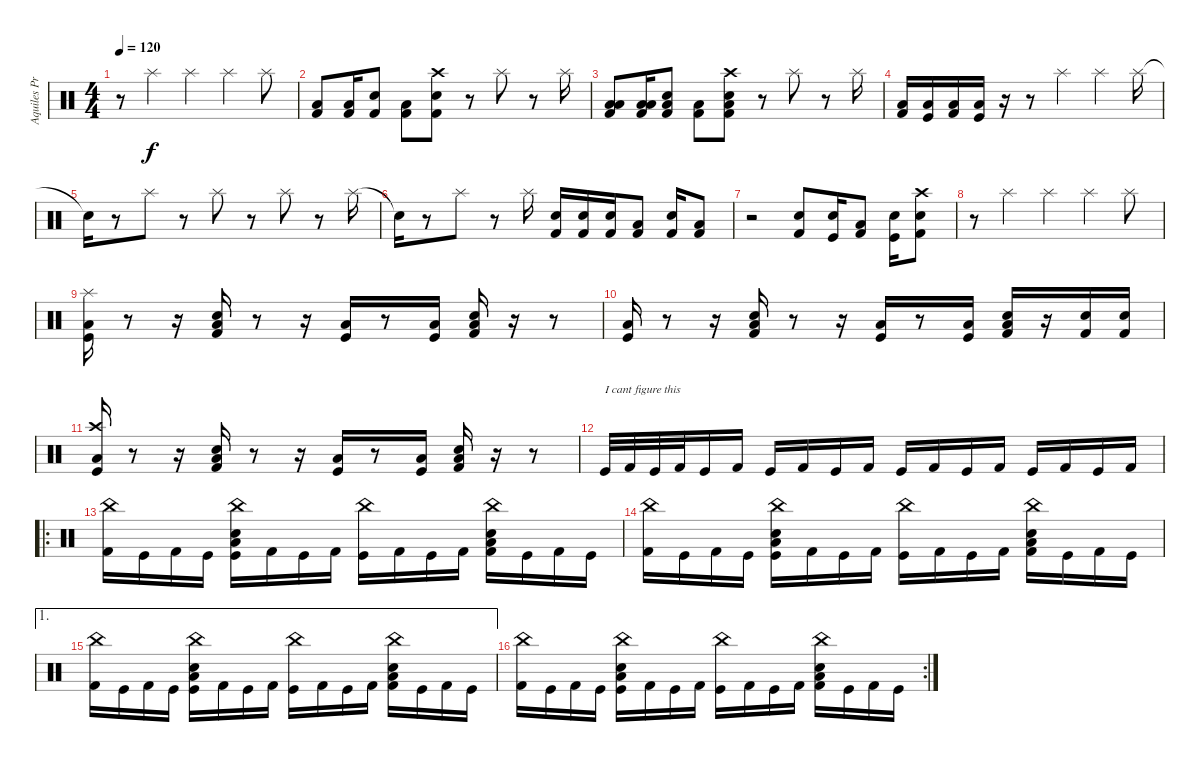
\track ("Aquiles Priester" "Aquiles Pr") {instrument percussion}
\staff {score}
\articulation defaults
\ts (4 4)
\tempo 120
\clef neutral
\ks c
r.8{dy f} "Splash (hit)".4 "Splash (hit)".4 "Splash (hit)".4 "Splash (hit)".8 |
("Kick (hit) 2" "Low Floor Tom (hit)").8 ("Kick (hit) 2" "Low Floor Tom (hit)").16 ("Kick (hit) 2" "Electric Snare (hit)").8 ("Kick (hit) 2" "Low Floor Tom (hit)").8 ("Kick (hit) 2" "Electric Snare (hit)" "Crash high (hit)").8 r.8 "Splash (hit)".8 r.8 "Splash (hit)".16 |
("Kick (hit) 2" "Low Tom (hit)" "Low Floor Tom (hit)").8 ("Kick (hit) 2" "Low Tom (hit)" "Low Floor Tom (hit)").16 ("Kick (hit) 2" "Low Floor Tom (hit)" "Electric Snare (hit)").8 ("Kick (hit) 2" "Low Floor Tom (hit)").8 ("Kick (hit) 2" "Low Floor Tom (hit)" "Electric Snare (hit)" "Crash high (hit)").8 r.8 "Splash (hit)".8 r.8 "Splash (hit)".16 |
("Kick (hit) 2" "Low Floor Tom (hit)").16 ("Kick (hit)" "Low Floor Tom (hit)").16 ("Kick (hit) 2" "Low Floor Tom (hit)").16 ("Kick (hit)" "Low Floor Tom (hit)").16 r.16 r.8 "Splash (hit)".4 "Splash (hit)".4 "Splash (hit)".16 |
"Snare (hit)"{t}.16 r.8 "Splash (hit)".8 r.8 "Splash (hit)".8 r.8 "Splash (hit)".8 r.8 "Splash (hit)".16 |
"Snare (hit)"{t}.16 r.8 "Splash (hit)".8 r.8 "Splash (hit)".16 ("Kick (hit) 2" "Electric Snare (hit)").16 ("Kick (hit) 2" "Electric Snare (hit)").16 ("Kick (hit) 2" "Electric Snare (hit)").16 ("Kick (hit) 2" "Low Floor Tom (hit)").8 ("Kick (hit) 2" "Electric Snare (hit)").16 ("Kick (hit) 2" "Low Floor Tom (hit)").8 |
r.2 ("Kick (hit) 2" "Electric Snare (hit)").8 ("Kick (hit)" "Electric Snare (hit)").16 ("Kick (hit) 2" "Low Floor Tom (hit)").8 ("Kick (hit)" "Electric Snare (hit)").16 ("Kick (hit) 2" "Electric Snare (hit)" "Crash high (hit)").8 |
r.8 "Splash (hit)".4 "Splash (hit)".4 "Splash (hit)".4 "Splash (hit)".8 |
("Kick (hit)" "Low Floor Tom (hit)" "Splash (hit)").16 r.8 r.16 ("Kick (hit) 2" "Low Floor Tom (hit)" "Electric Snare (hit)").16 r.8 r.16 ("Kick (hit)" "Low Floor Tom (hit)").16 r.8 ("Kick (hit)" "Low Floor Tom (hit)").16 ("Kick (hit) 2" "Low Floor Tom (hit)" "Electric Snare (hit)").16 r.16 r.8 |
("Kick (hit)" "Low Floor Tom (hit)").16 r.8 r.16 ("Kick (hit) 2" "Low Floor Tom (hit)" "Electric Snare (hit)").16 r.8 r.16 ("Kick (hit)" "Low Floor Tom (hit)").16 r.8 ("Kick (hit)" "Low Floor Tom (hit)").16 ("Kick (hit) 2" "Low Floor Tom (hit)" "Electric Snare (hit)").16 r.16 ("Kick (hit) 2" "Electric Snare (hit)").16 ("Kick (hit) 2" "Electric Snare (hit)").16 |
("Kick (hit)" "Low Floor Tom (hit)" "Crash high (hit)").16 r.8 r.16 ("Kick (hit) 2" "Low Floor Tom (hit)" "Electric Snare (hit)").16 r.8 r.16 ("Kick (hit)" "Low Floor Tom (hit)").16 r.8 ("Kick (hit)" "Low Floor Tom (hit)").16 ("Kick (hit) 2" "Low Floor Tom (hit)" "Electric Snare (hit)").16 r.16 r.8 |
"Kick (hit)".32{txt "I cant figure this"} "Kick (hit) 2".32 "Kick (hit)".32 "Kick (hit) 2".32 "Kick (hit)".16 "Kick (hit) 2".16 "Kick (hit)".16 "Kick (hit) 2".16 "Kick (hit)".16 "Kick (hit) 2".16 "Kick (hit)".16 "Kick (hit) 2".16 "Kick (hit)".16 "Kick (hit) 2".16 "Kick (hit)".16 "Kick (hit) 2".16 "Kick (hit)".16 "Kick (hit) 2".16 |
\ro
("Kick (hit) 2" "China (hit)").16 "Kick (hit)".16 "Kick (hit) 2".16 "Kick (hit)".16 ("Kick (hit)" "Low Floor Tom (hit)" "Electric Snare (hit)" "China (hit)").16 "Kick (hit) 2".16 "Kick (hit)".16 "Kick (hit) 2".16 ("Kick (hit)" "China (hit)").16 "Kick (hit) 2".16 "Kick (hit)".16 "Kick (hit) 2".16 ("Kick (hit) 2" "Low Floor Tom (hit)" "Electric Snare (hit)" "China (hit)").16 "Kick (hit)".16 "Kick (hit) 2".16 "Kick (hit)".16 |
("Kick (hit) 2" "China (hit)").16 "Kick (hit)".16 "Kick (hit) 2".16 "Kick (hit)".16 ("Kick (hit)" "Low Floor Tom (hit)" "Electric Snare (hit)" "China (hit)").16 "Kick (hit) 2".16 "Kick (hit)".16 "Kick (hit) 2".16 ("Kick (hit)" "China (hit)").16 "Kick (hit) 2".16 "Kick (hit)".16 "Kick (hit) 2".16 ("Kick (hit) 2" "Low Floor Tom (hit)" "Electric Snare (hit)" "China (hit)").16 "Kick (hit)".16 "Kick (hit) 2".16 "Kick (hit)".16 |
\ae 1
("Kick (hit) 2" "China (hit)").16 "Kick (hit)".16 "Kick (hit) 2".16 "Kick (hit)".16 ("Kick (hit)" "Low Floor Tom (hit)" "Electric Snare (hit)" "China (hit)").16 "Kick (hit) 2".16 "Kick (hit)".16 "Kick (hit) 2".16 ("Kick (hit)" "China (hit)").16 "Kick (hit) 2".16 "Kick (hit)".16 "Kick (hit) 2".16 ("Kick (hit) 2" "Low Floor Tom (hit)" "Electric Snare (hit)" "China (hit)").16 "Kick (hit)".16 "Kick (hit) 2".16 "Kick (hit)".16 |
\rc 2
("Kick (hit) 2" "China (hit)").16 "Kick (hit)".16 "Kick (hit) 2".16 "Kick (hit)".16 ("Kick (hit)" "Low Floor Tom (hit)" "Electric Snare (hit)" "China (hit)").16 "Kick (hit) 2".16 "Kick (hit)".16 "Kick (hit) 2".16 ("Kick (hit)" "China (hit)").16 "Kick (hit) 2".16 "Kick (hit)".16 "Kick (hit) 2".16 ("Kick (hit) 2" "Low Floor Tom (hit)" "Electric Snare (hit)" "China (hit)").16 "Kick (hit)".16 "Kick (hit) 2".16 "Kick (hit)".16
